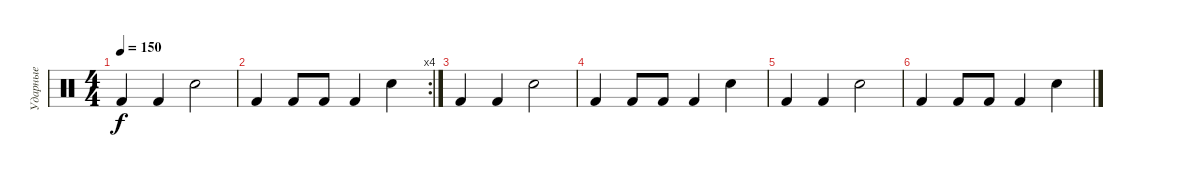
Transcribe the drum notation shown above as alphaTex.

\track ("Ударные" "Ударные") {instrument percussion}
\staff {score}
\articulation defaults
\ts (4 4)
\tempo 150
\clef neutral
\ks c "Kick (hit) 2".4{dy f} "Kick (hit) 2".4 "Snare (hit) 2".2
|
\rc 4 "Kick (hit) 2".4 "Kick (hit) 2".8 "Kick (hit) 2".8 "Kick (hit) 2".4 "Snare (hit) 2".4
|
"Kick (hit) 2".4 "Kick (hit) 2".4 "Snare (hit) 2".2 |
"Kick (hit) 2".4 "Kick (hit) 2".8 "Kick (hit) 2".8 "Kick (hit) 2".4 "Snare (hit) 2".4 |
"Kick (hit) 2".4 "Kick (hit) 2".4 "Snare (hit) 2".2 |
"Kick (hit) 2".4 "Kick (hit) 2".8 "Kick (hit) 2".8 "Kick (hit) 2".4 "Snare (hit) 2".4
